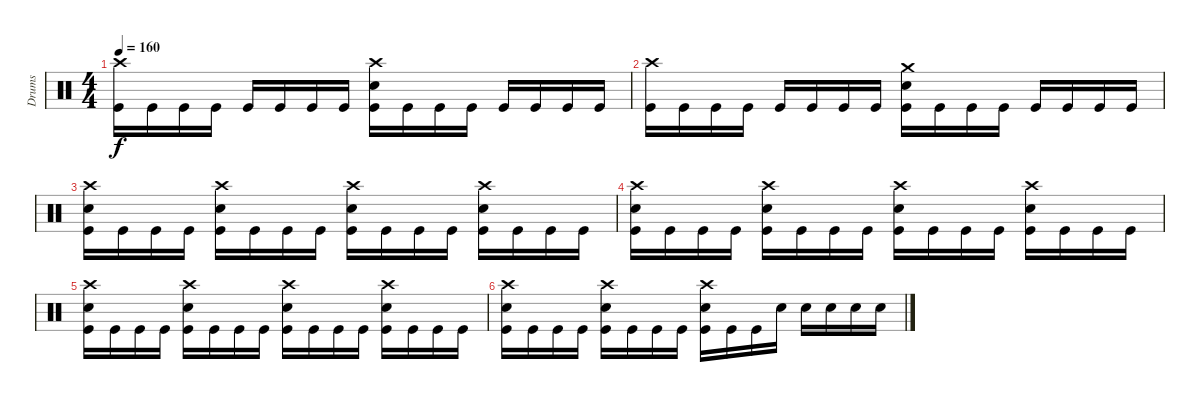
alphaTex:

\track ("Drums" "Drums") {instrument percussion}
\staff {score}
\articulation defaults
\ts (4 4)
\tempo 160
\clef neutral
\ks c
("Crash high (hit)" "Kick (hit)").16{dy f} "Kick (hit)".16 "Kick (hit)".16 "Kick (hit)".16 "Kick (hit)".16 "Kick (hit)".16 "Kick (hit)".16 "Kick (hit)".16 ("Crash high (hit)" "Electric Snare (hit)" "Kick (hit)").16 "Kick (hit)".16 "Kick (hit)".16 "Kick (hit)".16 "Kick (hit)".16 "Kick (hit)".16 "Kick (hit)".16 "Kick (hit)".16 |
("Crash high (hit)" "Kick (hit)").16 "Kick (hit)".16 "Kick (hit)".16 "Kick (hit)".16 "Kick (hit)".16 "Kick (hit)".16 "Kick (hit)".16 "Kick (hit)".16 ("Crash medium (hit)" "Electric Snare (hit)" "Kick (hit)").16 "Kick (hit)".16 "Kick (hit)".16 "Kick (hit)".16 "Kick (hit)".16 "Kick (hit)".16 "Kick (hit)".16 "Kick (hit)".16 |
("Crash high (hit)" "Electric Snare (hit)" "Kick (hit)").16 "Kick (hit)".16 "Kick (hit)".16 "Kick (hit)".16 ("Crash high (hit)" "Electric Snare (hit)" "Kick (hit)").16 "Kick (hit)".16 "Kick (hit)".16 "Kick (hit)".16 ("Crash high (hit)" "Electric Snare (hit)" "Kick (hit)").16 "Kick (hit)".16 "Kick (hit)".16 "Kick (hit)".16 ("Crash high (hit)" "Electric Snare (hit)" "Kick (hit)").16 "Kick (hit)".16 "Kick (hit)".16 "Kick (hit)".16 |
("Crash high (hit)" "Electric Snare (hit)" "Kick (hit)").16 "Kick (hit)".16 "Kick (hit)".16 "Kick (hit)".16 ("Crash high (hit)" "Electric Snare (hit)" "Kick (hit)").16 "Kick (hit)".16 "Kick (hit)".16 "Kick (hit)".16 ("Crash high (hit)" "Electric Snare (hit)" "Kick (hit)").16 "Kick (hit)".16 "Kick (hit)".16 "Kick (hit)".16 ("Crash high (hit)" "Electric Snare (hit)" "Kick (hit)").16 "Kick (hit)".16 "Kick (hit)".16 "Kick (hit)".16 |
("Crash high (hit)" "Electric Snare (hit)" "Kick (hit)").16 "Kick (hit)".16 "Kick (hit)".16 "Kick (hit)".16 ("Crash high (hit)" "Electric Snare (hit)" "Kick (hit)").16 "Kick (hit)".16 "Kick (hit)".16 "Kick (hit)".16 ("Crash high (hit)" "Electric Snare (hit)" "Kick (hit)").16 "Kick (hit)".16 "Kick (hit)".16 "Kick (hit)".16 ("Crash high (hit)" "Electric Snare (hit)" "Kick (hit)").16 "Kick (hit)".16 "Kick (hit)".16 "Kick (hit)".16 |
("Crash high (hit)" "Electric Snare (hit)" "Kick (hit)").16 "Kick (hit)".16 "Kick (hit)".16 "Kick (hit)".16 ("Crash high (hit)" "Electric Snare (hit)" "Kick (hit)").16 "Kick (hit)".16 "Kick (hit)".16 "Kick (hit)".16 ("Crash high (hit)" "Electric Snare (hit)" "Kick (hit)").16 "Kick (hit)".16 "Kick (hit)".16 "Electric Snare (hit)".16 "Electric Snare (hit)".16 "Electric Snare (hit)".16 "Electric Snare (hit)".16 "Electric Snare (hit)".16
